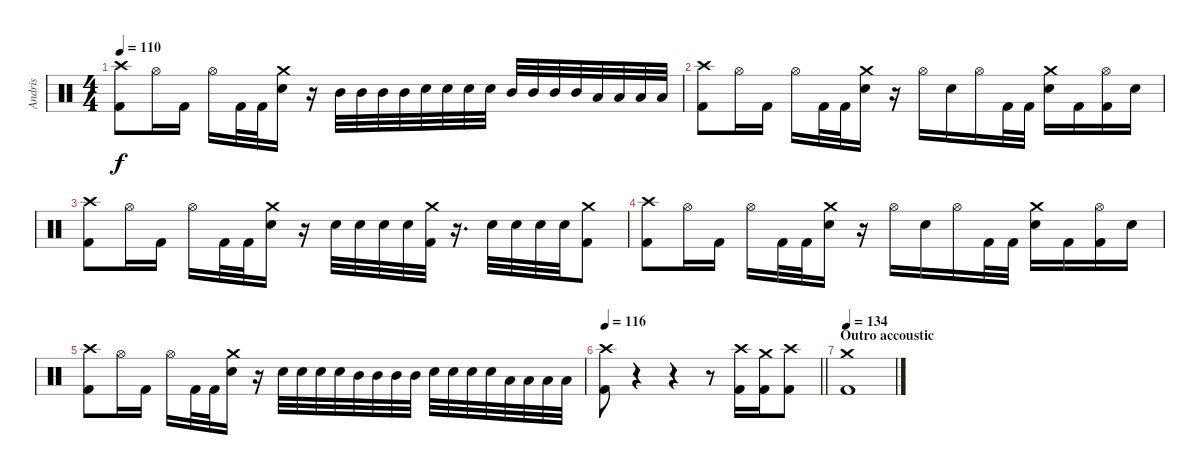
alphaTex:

\track ("Andris" "Andris") {instrument percussion}
\staff {score}
\articulation defaults
\ts (4 4)
\tempo 110
\clef neutral
\ks c
("Crash high (hit)" "Kick (hit) 2").8{dy f} "Hi-Hat (open)".16 "Kick (hit) 2".16 "Hi-Hat (open)".16 "Kick (hit) 2".32 "Kick (hit) 2".32 ("Crash medium (hit)" "Electric Snare (hit)").16 r.16 "Mid Tom (hit)".32 "Mid Tom (hit)".32 "Mid Tom (hit)".32 "Mid Tom (hit)".32 "Electric Snare (hit)".32 "Electric Snare (hit)".32 "Electric Snare (hit)".32 "Electric Snare (hit)".32 "Mid Tom (hit)".32 "Mid Tom (hit)".32 "Mid Tom (hit)".32 "Mid Tom (hit)".32 "Low Tom (hit)".32 "Low Tom (hit)".32 "Low Tom (hit)".32 "Low Tom (hit)".32 |
("Crash high (hit)" "Kick (hit) 2").8 "Hi-Hat (open)".16 "Kick (hit) 2".16 "Hi-Hat (open)".16 "Kick (hit) 2".32 "Kick (hit) 2".32 ("Crash medium (hit)" "Electric Snare (hit)").16 r.16 "Hi-Hat (open)".16 "Electric Snare (hit)".16 "Hi-Hat (open)".16 "Kick (hit) 2".32 "Kick (hit) 2".32 ("Crash medium (hit)" "Electric Snare (hit)").16 "Kick (hit) 2".16 ("Hi-Hat (open)" "Kick (hit) 2").16 "Electric Snare (hit)".16 |
("Crash high (hit)" "Kick (hit) 2").8 "Hi-Hat (open)".16 "Kick (hit) 2".16 "Hi-Hat (open)".16 "Kick (hit) 2".32 "Kick (hit) 2".32 ("Crash medium (hit)" "Electric Snare (hit)").16 r.16 "Electric Snare (hit)".32 "Electric Snare (hit)".32 "Electric Snare (hit)".32 "Electric Snare (hit)".32 ("Crash medium (hit)" "Kick (hit) 2").32 r.16{d} "Electric Snare (hit)".32 "Electric Snare (hit)".32 "Electric Snare (hit)".32 "Electric Snare (hit)".32 ("Crash medium (hit)" "Kick (hit) 2").8 |
("Crash high (hit)" "Kick (hit) 2").8 "Hi-Hat (open)".16 "Kick (hit) 2".16 "Hi-Hat (open)".16 "Kick (hit) 2".32 "Kick (hit) 2".32 ("Crash medium (hit)" "Electric Snare (hit)").16 r.16 "Hi-Hat (open)".16 "Electric Snare (hit)".16 "Hi-Hat (open)".16 "Kick (hit) 2".32 "Kick (hit) 2".32 ("Crash medium (hit)" "Electric Snare (hit)").16 "Kick (hit) 2".16 ("Hi-Hat (open)" "Kick (hit) 2").16 "Electric Snare (hit)".16 |
("Crash high (hit)" "Kick (hit) 2").8 "Hi-Hat (open)".16 "Kick (hit) 2".16 "Hi-Hat (open)".16 "Kick (hit) 2".32 "Kick (hit) 2".32 ("Crash medium (hit)" "Electric Snare (hit)").16 r.16 "Electric Snare (hit)".32 "Electric Snare (hit)".32 "Electric Snare (hit)".32 "Electric Snare (hit)".32 "Mid Tom (hit)".32 "Mid Tom (hit)".32 "Mid Tom (hit)".32 "Mid Tom (hit)".32 "Electric Snare (hit)".32 "Electric Snare (hit)".32 "Electric Snare (hit)".32 "Electric Snare (hit)".32 "Low Tom (hit)".32 "Low Tom (hit)".32 "Low Tom (hit)".32 "Low Tom (hit)".32 |
\tempo 116
\barLineRight lightlight
("Crash high (hit)" "Kick (hit) 2").8 r.4 r.4 r.8 ("Crash high (hit)" "Kick (hit) 2").16 ("Crash medium (hit)" "Kick (hit) 2").16 ("Crash high (hit)" "Kick (hit) 2").8 |
\section ("" "Outro accoustic")
\tempo 134
("Crash medium (hit)" "Kick (hit) 2").1
